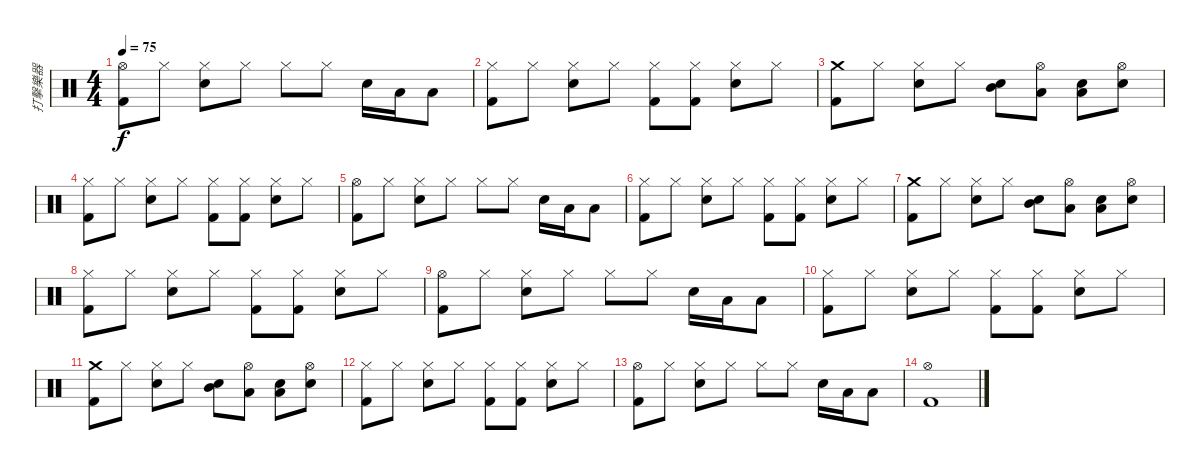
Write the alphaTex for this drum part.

\track ("打擊樂器" "打擊樂器") {instrument percussion}
\staff {score}
\articulation defaults
\ts (4 4)
\tempo 75
\clef neutral
\ks c
("Hi-Hat (open)" "Kick (hit) 2").8{dy f} "Hi-Hat (closed)".8 ("Hi-Hat (closed)" "Electric Snare (hit)").8 "Hi-Hat (closed)".8 "Hi-Hat (closed)".8 "Hi-Hat (closed)".8 "Electric Snare (hit)".16 "Low Floor Tom (hit)".16 "Low Tom (hit)".8 |
("Hi-Hat (closed)" "Kick (hit) 2").8 "Hi-Hat (closed)".8 ("Hi-Hat (closed)" "Electric Snare (hit)").8 "Hi-Hat (closed)".8 ("Hi-Hat (closed)" "Kick (hit) 2").8 ("Hi-Hat (closed)" "Kick (hit) 2").8 ("Hi-Hat (closed)" "Electric Snare (hit)").8 "Hi-Hat (closed)".8 |
("Crash medium (hit)" "Kick (hit) 2").8 "Hi-Hat (closed)".8 ("Hi-Hat (closed)" "Electric Snare (hit)").8 "Hi-Hat (closed)".8 ("Electric Snare (hit)" "Mid Tom (hit)").8 ("Hi-Hat (open)" "Low Tom (hit)").8 ("Electric Snare (hit)" "Low Tom (hit)").8 ("Electric Snare (hit)" "Hi-Hat (open)").8 |
("Hi-Hat (closed)" "Kick (hit) 2").8 "Hi-Hat (closed)".8 ("Hi-Hat (closed)" "Electric Snare (hit)").8 "Hi-Hat (closed)".8 ("Hi-Hat (closed)" "Kick (hit) 2").8 ("Hi-Hat (closed)" "Kick (hit) 2").8 ("Hi-Hat (closed)" "Electric Snare (hit)").8 "Hi-Hat (closed)".8 |
("Hi-Hat (open)" "Kick (hit) 2").8 "Hi-Hat (closed)".8 ("Hi-Hat (closed)" "Electric Snare (hit)").8 "Hi-Hat (closed)".8 "Hi-Hat (closed)".8 "Hi-Hat (closed)".8 "Electric Snare (hit)".16 "Low Floor Tom (hit)".16 "Low Tom (hit)".8 |
("Hi-Hat (closed)" "Kick (hit) 2").8 "Hi-Hat (closed)".8 ("Hi-Hat (closed)" "Electric Snare (hit)").8 "Hi-Hat (closed)".8 ("Hi-Hat (closed)" "Kick (hit) 2").8 ("Hi-Hat (closed)" "Kick (hit) 2").8 ("Hi-Hat (closed)" "Electric Snare (hit)").8 "Hi-Hat (closed)".8 |
("Crash medium (hit)" "Kick (hit) 2").8 "Hi-Hat (closed)".8 ("Hi-Hat (closed)" "Electric Snare (hit)").8 "Hi-Hat (closed)".8 ("Electric Snare (hit)" "Mid Tom (hit)").8 ("Hi-Hat (open)" "Low Tom (hit)").8 ("Electric Snare (hit)" "Low Tom (hit)").8 ("Electric Snare (hit)" "Hi-Hat (open)").8 |
("Hi-Hat (closed)" "Kick (hit) 2").8 "Hi-Hat (closed)".8 ("Hi-Hat (closed)" "Electric Snare (hit)").8 "Hi-Hat (closed)".8 ("Hi-Hat (closed)" "Kick (hit) 2").8 ("Hi-Hat (closed)" "Kick (hit) 2").8 ("Hi-Hat (closed)" "Electric Snare (hit)").8 "Hi-Hat (closed)".8 |
("Hi-Hat (open)" "Kick (hit) 2").8 "Hi-Hat (closed)".8 ("Hi-Hat (closed)" "Electric Snare (hit)").8 "Hi-Hat (closed)".8 "Hi-Hat (closed)".8 "Hi-Hat (closed)".8 "Electric Snare (hit)".16 "Low Floor Tom (hit)".16 "Low Tom (hit)".8 |
("Hi-Hat (closed)" "Kick (hit) 2").8 "Hi-Hat (closed)".8 ("Hi-Hat (closed)" "Electric Snare (hit)").8 "Hi-Hat (closed)".8 ("Hi-Hat (closed)" "Kick (hit) 2").8 ("Hi-Hat (closed)" "Kick (hit) 2").8 ("Hi-Hat (closed)" "Electric Snare (hit)").8 "Hi-Hat (closed)".8 |
("Crash medium (hit)" "Kick (hit) 2").8 "Hi-Hat (closed)".8 ("Hi-Hat (closed)" "Electric Snare (hit)").8 "Hi-Hat (closed)".8 ("Electric Snare (hit)" "Mid Tom (hit)").8 ("Hi-Hat (open)" "Low Tom (hit)").8 ("Electric Snare (hit)" "Low Tom (hit)").8 ("Electric Snare (hit)" "Hi-Hat (open)").8 |
("Hi-Hat (closed)" "Kick (hit) 2").8 "Hi-Hat (closed)".8 ("Hi-Hat (closed)" "Electric Snare (hit)").8 "Hi-Hat (closed)".8 ("Hi-Hat (closed)" "Kick (hit) 2").8 ("Hi-Hat (closed)" "Kick (hit) 2").8 ("Hi-Hat (closed)" "Electric Snare (hit)").8 "Hi-Hat (closed)".8 |
("Hi-Hat (open)" "Kick (hit) 2").8 "Hi-Hat (closed)".8 ("Hi-Hat (closed)" "Electric Snare (hit)").8 "Hi-Hat (closed)".8 "Hi-Hat (closed)".8 "Hi-Hat (closed)".8 "Electric Snare (hit)".16 "Low Floor Tom (hit)".16 "Low Tom (hit)".8 |
("Hi-Hat (open)" "Kick (hit) 2").1
